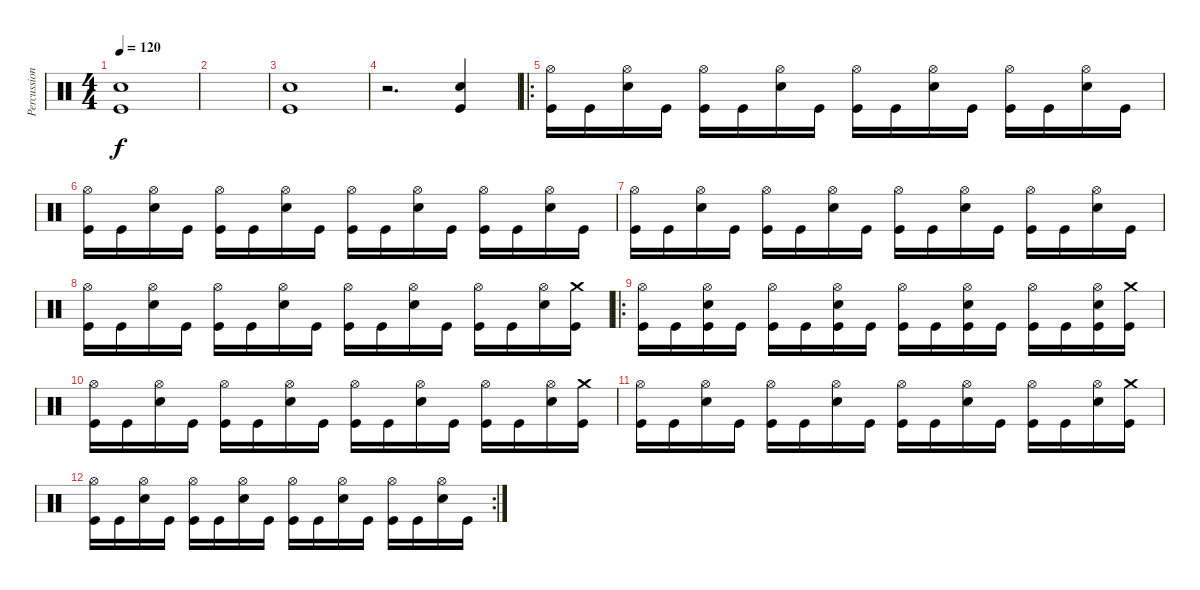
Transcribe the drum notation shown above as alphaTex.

\track ("Percussion" "Percussion") {instrument percussion}
\staff {score}
\articulation defaults
\ts (4 4)
\tempo 120
\clef neutral
\ks c
("Snare (hit) 2" "Kick (hit)").1{dy f} |
|
("Snare (hit) 2" "Kick (hit)").1 |
r.2{d} ("Snare (hit) 2" "Kick (hit)").4 |
\ro
("Hi-Hat (open)" "Kick (hit)").16 "Kick (hit)".16 ("Hi-Hat (open)" "Snare (hit) 2").16 "Kick (hit)".16 ("Hi-Hat (open)" "Kick (hit)").16 "Kick (hit)".16 ("Hi-Hat (open)" "Snare (hit) 2").16 "Kick (hit)".16 ("Hi-Hat (open)" "Kick (hit)").16 "Kick (hit)".16 ("Hi-Hat (open)" "Snare (hit) 2").16 "Kick (hit)".16 ("Hi-Hat (open)" "Kick (hit)").16 "Kick (hit)".16 ("Hi-Hat (open)" "Snare (hit) 2").16 "Kick (hit)".16 |
("Hi-Hat (open)" "Kick (hit)").16 "Kick (hit)".16 ("Hi-Hat (open)" "Snare (hit) 2").16 "Kick (hit)".16 ("Hi-Hat (open)" "Kick (hit)").16 "Kick (hit)".16 ("Hi-Hat (open)" "Snare (hit) 2").16 "Kick (hit)".16 ("Hi-Hat (open)" "Kick (hit)").16 "Kick (hit)".16 ("Hi-Hat (open)" "Snare (hit) 2").16 "Kick (hit)".16 ("Hi-Hat (open)" "Kick (hit)").16 "Kick (hit)".16 ("Hi-Hat (open)" "Snare (hit) 2").16 "Kick (hit)".16 |
("Hi-Hat (open)" "Kick (hit)").16 "Kick (hit)".16 ("Hi-Hat (open)" "Snare (hit) 2").16 "Kick (hit)".16 ("Hi-Hat (open)" "Kick (hit)").16 "Kick (hit)".16 ("Hi-Hat (open)" "Snare (hit) 2").16 "Kick (hit)".16 ("Hi-Hat (open)" "Kick (hit)").16 "Kick (hit)".16 ("Hi-Hat (open)" "Snare (hit) 2").16 "Kick (hit)".16 ("Hi-Hat (open)" "Kick (hit)").16 "Kick (hit)".16 ("Hi-Hat (open)" "Snare (hit) 2").16 "Kick (hit)".16 |
("Hi-Hat (open)" "Kick (hit)").16 "Kick (hit)".16 ("Hi-Hat (open)" "Snare (hit) 2").16 "Kick (hit)".16 ("Hi-Hat (open)" "Kick (hit)").16 "Kick (hit)".16 ("Hi-Hat (open)" "Snare (hit) 2").16 "Kick (hit)".16 ("Hi-Hat (open)" "Kick (hit)").16 "Kick (hit)".16 ("Hi-Hat (open)" "Snare (hit) 2").16 "Kick (hit)".16 ("Hi-Hat (open)" "Kick (hit)").16 "Kick (hit)".16 ("Hi-Hat (open)" "Snare (hit) 2").16 ("Crash medium (hit)" "Kick (hit)").16 |
\ro
("Hi-Hat (open)" "Kick (hit)").16 "Kick (hit)".16 ("Hi-Hat (open)" "Snare (hit) 2" "Kick (hit)").16 "Kick (hit)".16 ("Hi-Hat (open)" "Kick (hit)").16 "Kick (hit)".16 ("Hi-Hat (open)" "Snare (hit) 2" "Kick (hit)").16 "Kick (hit)".16 ("Hi-Hat (open)" "Kick (hit)").16 "Kick (hit)".16 ("Hi-Hat (open)" "Snare (hit) 2" "Kick (hit)").16 "Kick (hit)".16 ("Hi-Hat (open)" "Kick (hit)").16 "Kick (hit)".16 ("Hi-Hat (open)" "Snare (hit) 2" "Kick (hit)").16 ("Crash medium (hit)" "Kick (hit)").16 |
("Hi-Hat (open)" "Kick (hit)").16 "Kick (hit)".16 ("Hi-Hat (open)" "Snare (hit) 2").16 "Kick (hit)".16 ("Hi-Hat (open)" "Kick (hit)").16 "Kick (hit)".16 ("Hi-Hat (open)" "Snare (hit) 2").16 "Kick (hit)".16 ("Hi-Hat (open)" "Kick (hit)").16 "Kick (hit)".16 ("Hi-Hat (open)" "Snare (hit) 2").16 "Kick (hit)".16 ("Hi-Hat (open)" "Kick (hit)").16 "Kick (hit)".16 ("Hi-Hat (open)" "Snare (hit) 2").16 ("Crash medium (hit)" "Kick (hit)").16 |
("Hi-Hat (open)" "Kick (hit)").16 "Kick (hit)".16 ("Hi-Hat (open)" "Snare (hit) 2").16 "Kick (hit)".16 ("Hi-Hat (open)" "Kick (hit)").16 "Kick (hit)".16 ("Hi-Hat (open)" "Snare (hit) 2").16 "Kick (hit)".16 ("Hi-Hat (open)" "Kick (hit)").16 "Kick (hit)".16 ("Hi-Hat (open)" "Snare (hit) 2").16 "Kick (hit)".16 ("Hi-Hat (open)" "Kick (hit)").16 "Kick (hit)".16 ("Hi-Hat (open)" "Snare (hit) 2").16 ("Crash medium (hit)" "Kick (hit)").16 |
\rc 2
("Hi-Hat (open)" "Kick (hit)").16 "Kick (hit)".16 ("Hi-Hat (open)" "Snare (hit) 2").16 "Kick (hit)".16 ("Hi-Hat (open)" "Kick (hit)").16 "Kick (hit)".16 ("Hi-Hat (open)" "Snare (hit) 2").16 "Kick (hit)".16 ("Hi-Hat (open)" "Kick (hit)").16 "Kick (hit)".16 ("Hi-Hat (open)" "Snare (hit) 2").16 "Kick (hit)".16 ("Hi-Hat (open)" "Kick (hit)").16 "Kick (hit)".16 ("Hi-Hat (open)" "Snare (hit) 2").16 "Kick (hit)".16
